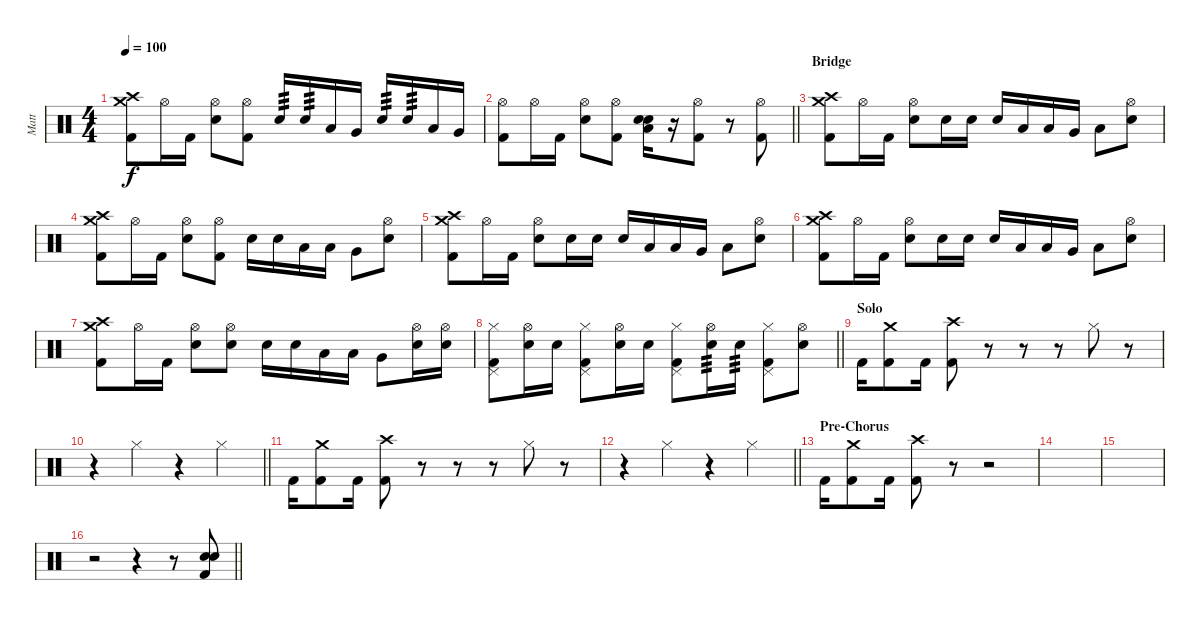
\track ("Matt" "Matt") {instrument percussion}
\staff {score}
\articulation defaults
\ts (4 4)
\tempo 100
\clef neutral
\ks c
("Crash medium (hit)" "Crash high (hit)" "Kick (hit) 2").8{dy f} "Hi-Hat (open)".16 "Kick (hit) 2".16 ("Hi-Hat (open)" "Snare (hit) 2").8 ("Hi-Hat (open)" "Kick (hit) 2").8 "Snare (hit) 2".16{tp 3} "Snare (hit) 2".16{tp 3} "Low Tom (hit)".16 "Very Low Tom (hit)".16 "Snare (hit) 2".16{tp 3} "Snare (hit) 2".16{tp 3} "Low Tom (hit)".16 "Very Low Tom (hit)".16 |
\barLineRight lightlight
("Hi-Hat (open)" "Kick (hit) 2").8 "Hi-Hat (open)".16 "Kick (hit) 2".16 ("Hi-Hat (open)" "Snare (hit) 2").8 ("Hi-Hat (open)" "Kick (hit) 2").8 ("Low Tom (hit)" "Snare (hit) 2" "Snare (hit) 2").16 r.16 ("Hi-Hat (open)" "Kick (hit) 2").8 r.8 ("Hi-Hat (open)" "Kick (hit) 2").8 |
\section ("" "Bridge")
("Crash medium (hit)" "Crash high (hit)" "Kick (hit) 2").8 "Hi-Hat (open)".16 "Kick (hit) 2".16 ("Hi-Hat (open)" "Snare (hit) 2").8 "Snare (hit) 2".16 "Snare (hit) 2".16 "Snare (hit) 2".16 "Low Tom (hit)".16 "Low Tom (hit)".16 "Very Low Tom (hit)".16 "Low Floor Tom (hit)".8 ("Hi-Hat (open)" "Snare (hit) 2").8 |
("Crash medium (hit)" "Crash high (hit)" "Kick (hit) 2").8 "Hi-Hat (open)".16 "Kick (hit) 2".16 ("Hi-Hat (open)" "Snare (hit) 2").8 ("Hi-Hat (open)" "Kick (hit) 2").8 "Snare (hit) 2".16 "Snare (hit) 2".16 "Low Tom (hit)".16 "Low Tom (hit)".16 "Very Low Tom (hit)".8 ("Hi-Hat (open)" "Snare (hit) 2").8 |
("Crash medium (hit)" "Crash high (hit)" "Kick (hit) 2").8 "Hi-Hat (open)".16 "Kick (hit) 2".16 ("Hi-Hat (open)" "Snare (hit) 2").8 "Snare (hit) 2".16 "Snare (hit) 2".16 "Snare (hit) 2".16 "Low Tom (hit)".16 "Low Tom (hit)".16 "Very Low Tom (hit)".16 "Low Floor Tom (hit)".8 ("Hi-Hat (open)" "Snare (hit) 2").8 |
("Crash medium (hit)" "Crash high (hit)" "Kick (hit) 2").8 "Hi-Hat (open)".16 "Kick (hit) 2".16 ("Hi-Hat (open)" "Snare (hit) 2").8 "Snare (hit) 2".16 "Snare (hit) 2".16 "Snare (hit) 2".16 "Low Tom (hit)".16 "Low Tom (hit)".16 "Very Low Tom (hit)".16 "Low Floor Tom (hit)".8 ("Hi-Hat (open)" "Snare (hit) 2").8 |
("Crash medium (hit)" "Crash high (hit)" "Kick (hit) 2").8 "Hi-Hat (open)".16 "Kick (hit) 2".16 ("Hi-Hat (open)" "Snare (hit) 2").8 ("Hi-Hat (open)" "Snare (hit) 2").8 "Snare (hit) 2".16 "Snare (hit) 2".16 "Low Tom (hit)".16 "Low Tom (hit)".16 "Very Low Tom (hit)".8 ("Hi-Hat (open)" "Snare (hit) 2").16 ("Hi-Hat (open)" "Snare (hit) 2").16 |
\barLineRight lightlight
("Pedal Hi-Hat (hit)" "Hi-Hat (closed)" "Kick (hit) 2").8 ("Hi-Hat (open)" "Snare (hit) 2").16 "Snare (hit) 2".16 ("Pedal Hi-Hat (hit)" "Hi-Hat (closed)" "Kick (hit) 2").8 ("Hi-Hat (open)" "Snare (hit) 2").16 "Snare (hit) 2".16 ("Pedal Hi-Hat (hit)" "Hi-Hat (closed)" "Kick (hit) 2").8 ("Hi-Hat (open)" "Snare (hit) 2").16{tp 3} "Snare (hit) 2".16{tp 3} ("Pedal Hi-Hat (hit)" "Hi-Hat (closed)" "Kick (hit) 2").8 ("Hi-Hat (open)" "Snare (hit) 2").8 |
\section ("" "Solo")
"Kick (hit) 2".16 ("Crash medium (hit)" "Kick (hit) 2").8 "Kick (hit) 2".16 ("Crash high (hit)" "Kick (hit) 2").8 r.8 r.8 r.8 "Hi-Hat (closed)".8 r.8 |
\barLineRight lightlight
r.4 "Hi-Hat (closed)".4 r.4 "Hi-Hat (closed)".4 |
"Kick (hit) 2".16 ("Crash medium (hit)" "Kick (hit) 2").8 "Kick (hit) 2".16 ("Crash high (hit)" "Kick (hit) 2").8 r.8 r.8 r.8 "Hi-Hat (closed)".8 r.8 |
\barLineRight lightlight
r.4 "Hi-Hat (closed)".4 r.4 "Hi-Hat (closed)".4 |
\section ("" "Pre-Chorus")
"Kick (hit) 2".16 ("Crash medium (hit)" "Kick (hit) 2").8 "Kick (hit) 2".16 ("Crash high (hit)" "Kick (hit) 2").8 r.8 r.2 |
|
|
\barLineRight lightlight
r.2 r.4 r.8 ("Snare (hit) 2" "Snare (hit) 2" "Kick (hit) 2").8
